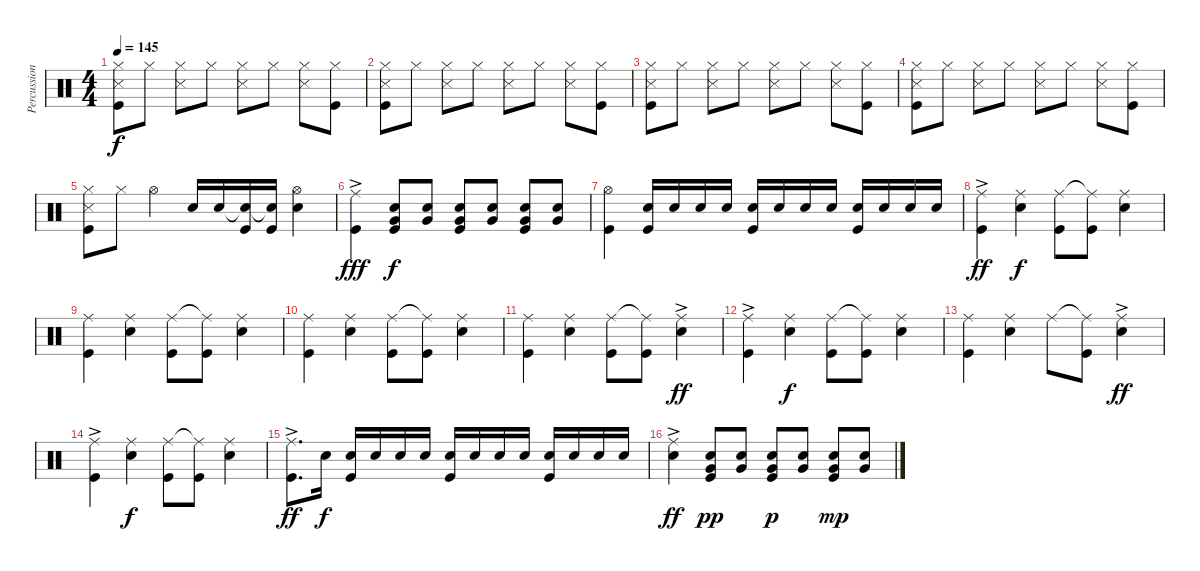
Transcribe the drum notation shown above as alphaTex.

\track ("Percussion" "Percussion") {instrument percussion}
\staff {score}
\articulation defaults
\ts (4 4)
\tempo 145
\clef neutral
\ks c
("Hi-Hat (closed)" "Snare (side stick) 3" "Kick (hit)").8{dy f} "Hi-Hat (closed)".8 ("Hi-Hat (closed)" "Snare (side stick) 3").8 "Hi-Hat (closed)".8 ("Hi-Hat (closed)" "Snare (side stick) 3").8 "Hi-Hat (closed)".8 ("Hi-Hat (closed)" "Snare (side stick) 3").8 ("Hi-Hat (closed)" "Kick (hit)").8 |
("Hi-Hat (closed)" "Snare (side stick) 3" "Kick (hit)").8 "Hi-Hat (closed)".8 ("Hi-Hat (closed)" "Snare (side stick) 3").8 "Hi-Hat (closed)".8 ("Hi-Hat (closed)" "Snare (side stick) 3").8 "Hi-Hat (closed)".8 ("Hi-Hat (closed)" "Snare (side stick) 3").8 ("Hi-Hat (closed)" "Kick (hit)").8 |
("Hi-Hat (closed)" "Snare (side stick) 3" "Kick (hit)").8 "Hi-Hat (closed)".8 ("Hi-Hat (closed)" "Snare (side stick) 3").8 "Hi-Hat (closed)".8 ("Hi-Hat (closed)" "Snare (side stick) 3").8 "Hi-Hat (closed)".8 ("Hi-Hat (closed)" "Snare (side stick) 3").8 ("Hi-Hat (closed)" "Kick (hit)").8 |
("Hi-Hat (closed)" "Snare (side stick) 3" "Kick (hit)").8 "Hi-Hat (closed)".8 ("Hi-Hat (closed)" "Snare (side stick) 3").8 "Hi-Hat (closed)".8 ("Hi-Hat (closed)" "Snare (side stick) 3").8 "Hi-Hat (closed)".8 ("Hi-Hat (closed)" "Snare (side stick) 3").8 ("Hi-Hat (closed)" "Kick (hit)").8 |
("Hi-Hat (closed)" "Snare (side stick) 3" "Kick (hit)").8 "Hi-Hat (closed)".8 "Hi-Hat (open)".4 "Snare (hit) 2".16 "Snare (hit) 2".16 ("Snare (hit) 2"{t} "Kick (hit)").16 ("Snare (hit) 2"{t} "Kick (hit)").16 ("Hi-Hat (open)" "Snare (hit) 2").4 |
("Ride (middle)"{ac} "Kick (hit)").4{dy fff} ("Snare (hit) 2" "Very Low Tom (hit)" "Kick (hit)").8{dy f} ("Snare (hit) 2" "Very Low Tom (hit)").8 ("Snare (hit) 2" "Very Low Tom (hit)" "Kick (hit)").8 ("Snare (hit) 2" "Very Low Tom (hit)").8 ("Snare (hit) 2" "Very Low Tom (hit)" "Kick (hit)").8 ("Snare (hit) 2" "Very Low Tom (hit)").8 |
("Hi-Hat (open)" "Kick (hit)").4 ("Snare (hit) 2" "Kick (hit)").16 "Snare (hit) 2".16 "Snare (hit) 2".16 "Snare (hit) 2".16 ("Snare (hit) 2" "Kick (hit)").16 "Snare (hit) 2".16 "Snare (hit) 2".16 "Snare (hit) 2".16 ("Snare (hit) 2" "Kick (hit)").16 "Snare (hit) 2".16 "Snare (hit) 2".16 "Snare (hit) 2".16 |
("Ride (middle)"{ac} "Kick (hit)").4{dy ff} ("Ride (middle)" "Snare (hit) 2").4{dy f} ("Ride (middle)" "Kick (hit)").8 ("Ride (middle)"{t} "Kick (hit)").8 ("Ride (middle)" "Snare (hit) 2").4 |
("Ride (middle)" "Kick (hit)").4 ("Ride (middle)" "Snare (hit) 2").4 ("Ride (middle)" "Kick (hit)").8 ("Ride (middle)"{t} "Kick (hit)").8 ("Ride (middle)" "Snare (hit) 2").4 |
("Ride (middle)" "Kick (hit)").4 ("Ride (middle)" "Snare (hit) 2").4 ("Ride (middle)" "Kick (hit)").8 ("Ride (middle)"{t} "Kick (hit)").8 ("Ride (middle)" "Snare (hit) 2").4 |
("Ride (middle)" "Kick (hit)").4 ("Ride (middle)" "Snare (hit) 2").4 ("Ride (middle)" "Kick (hit)").8 ("Ride (middle)"{t} "Kick (hit)").8 ("Ride (middle)"{ac} "Snare (hit) 2").4{dy ff} |
("Ride (middle)"{ac} "Kick (hit)").4 ("Ride (middle)" "Snare (hit) 2").4{dy f} ("Ride (middle)" "Kick (hit)").8 ("Ride (middle)"{t} "Kick (hit)").8 ("Ride (middle)" "Snare (hit) 2").4 |
("Ride (middle)" "Kick (hit)").4 ("Ride (middle)" "Snare (hit) 2").4 "Ride (middle)".8 ("Ride (middle)"{t} "Kick (hit)").8 ("Ride (middle)"{ac} "Snare (hit) 2").4{dy ff} |
("Ride (middle)"{ac} "Kick (hit)").4 ("Ride (middle)" "Snare (hit) 2").4{dy f} ("Ride (middle)" "Kick (hit)").8 ("Ride (middle)"{t} "Kick (hit)").8 ("Ride (middle)" "Snare (hit) 2").4 |
("Ride (middle)"{ac} "Kick (hit)").8{d dy ff} "Snare (hit) 2".16{dy f} ("Snare (hit) 2" "Kick (hit)").16 "Snare (hit) 2".16 "Snare (hit) 2".16 "Snare (hit) 2".16 ("Snare (hit) 2" "Kick (hit)").16 "Snare (hit) 2".16 "Snare (hit) 2".16 "Snare (hit) 2".16 ("Snare (hit) 2" "Kick (hit)").16 "Snare (hit) 2".16 "Snare (hit) 2".16 "Snare (hit) 2".16 |
("Ride (middle)"{ac} "Snare (hit) 2").4{dy ff} ("Snare (hit) 2" "Very Low Tom (hit)" "Kick (hit)").8{dy pp} ("Snare (hit) 2" "Very Low Tom (hit)").8 ("Snare (hit) 2" "Very Low Tom (hit)" "Kick (hit)").8{dy p} ("Snare (hit) 2" "Very Low Tom (hit)").8 ("Snare (hit) 2" "Very Low Tom (hit)" "Kick (hit)").8{dy mp} ("Snare (hit) 2" "Very Low Tom (hit)").8
